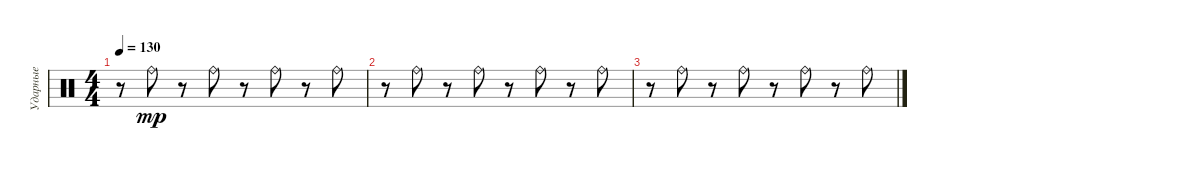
\track ("Ударные" "Ударные") {instrument percussion}
\staff {score}
\articulation defaults
\ts (4 4)
\tempo 130
\clef neutral
\ks c
r.8{dy mp} "Ride (bell)".8 r.8 "Ride (bell)".8 r.8 "Ride (bell)".8 r.8 "Ride (bell)".8 |
r.8 "Ride (bell)".8 r.8 "Ride (bell)".8 r.8 "Ride (bell)".8 r.8 "Ride (bell)".8 |
r.8 "Ride (bell)".8 r.8 "Ride (bell)".8 r.8 "Ride (bell)".8 r.8 "Ride (bell)".8
